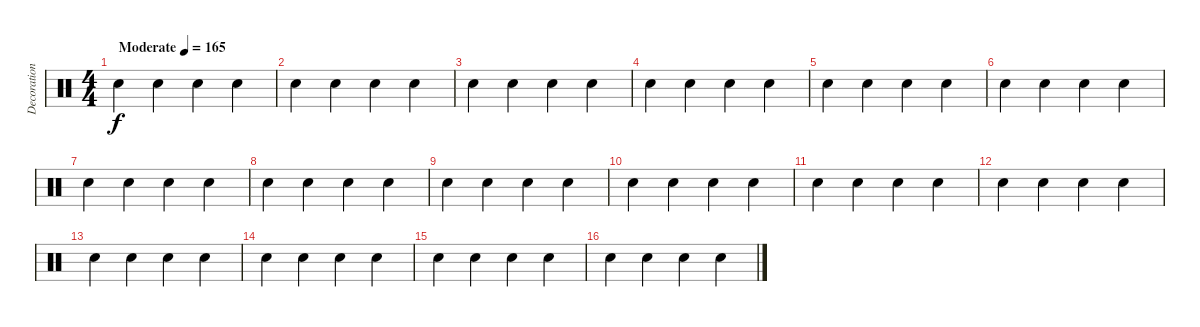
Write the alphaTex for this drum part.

\track ("Decoration" "Decoration") {instrument percussion}
\staff {score}
\articulation defaults
\ts (4 4)
\tempo (165 "Moderate")
\clef neutral
\ks c "Hand Clap (hit)".4{dy f} "Hand Clap (hit)".4 "Hand Clap (hit)".4 "Hand Clap (hit)".4
|
"Hand Clap (hit)".4 "Hand Clap (hit)".4 "Hand Clap (hit)".4 "Hand Clap (hit)".4 |
"Hand Clap (hit)".4 "Hand Clap (hit)".4 "Hand Clap (hit)".4 "Hand Clap (hit)".4 |
"Hand Clap (hit)".4 "Hand Clap (hit)".4 "Hand Clap (hit)".4 "Hand Clap (hit)".4 |
"Hand Clap (hit)".4 "Hand Clap (hit)".4 "Hand Clap (hit)".4 "Hand Clap (hit)".4 |
"Hand Clap (hit)".4 "Hand Clap (hit)".4 "Hand Clap (hit)".4 "Hand Clap (hit)".4 |
"Hand Clap (hit)".4 "Hand Clap (hit)".4 "Hand Clap (hit)".4 "Hand Clap (hit)".4 |
"Hand Clap (hit)".4 "Hand Clap (hit)".4 "Hand Clap (hit)".4 "Hand Clap (hit)".4 |
"Hand Clap (hit)".4 "Hand Clap (hit)".4 "Hand Clap (hit)".4 "Hand Clap (hit)".4 |
"Hand Clap (hit)".4 "Hand Clap (hit)".4 "Hand Clap (hit)".4 "Hand Clap (hit)".4 |
"Hand Clap (hit)".4 "Hand Clap (hit)".4 "Hand Clap (hit)".4 "Hand Clap (hit)".4 |
"Hand Clap (hit)".4 "Hand Clap (hit)".4 "Hand Clap (hit)".4 "Hand Clap (hit)".4 |
"Hand Clap (hit)".4 "Hand Clap (hit)".4 "Hand Clap (hit)".4 "Hand Clap (hit)".4 |
"Hand Clap (hit)".4 "Hand Clap (hit)".4 "Hand Clap (hit)".4 "Hand Clap (hit)".4 |
"Hand Clap (hit)".4 "Hand Clap (hit)".4 "Hand Clap (hit)".4 "Hand Clap (hit)".4 |
"Hand Clap (hit)".4 "Hand Clap (hit)".4 "Hand Clap (hit)".4 "Hand Clap (hit)".4
